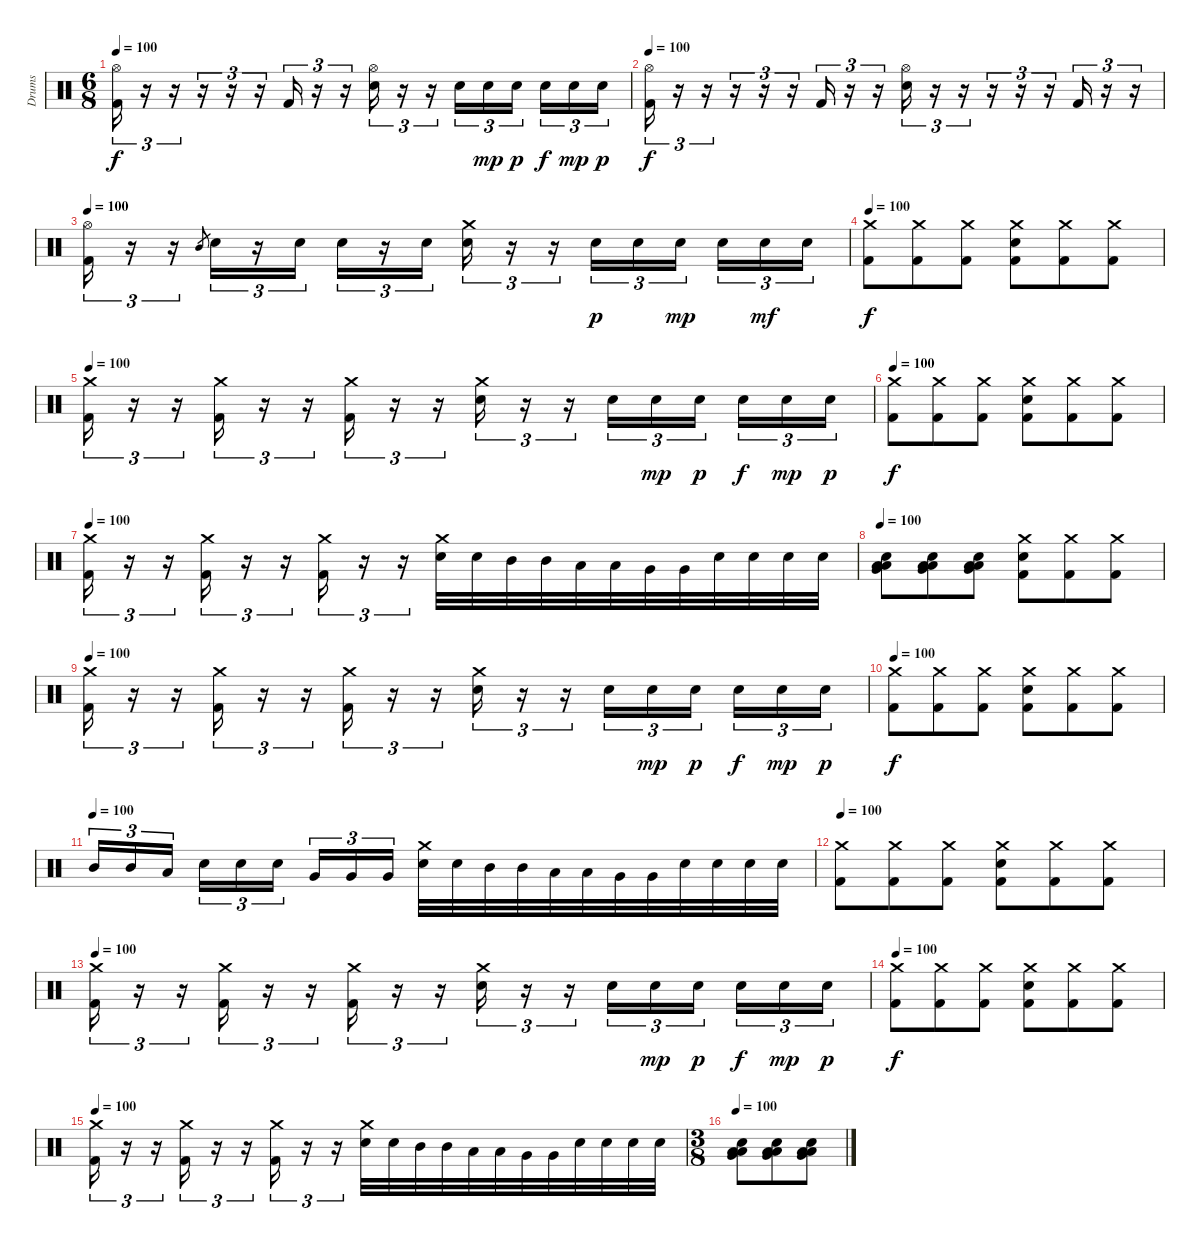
\track ("Drums" "Drums") {instrument percussion}
\staff {score}
\articulation defaults
\ts (6 8)
\tempo 100
\clef neutral
\ks c
("Hi-Hat (open)" "Kick (hit) 2").16{tu (3 2) dy f} r.16{tu (3 2)} r.16{tu (3 2)} r.16{tu (3 2)} r.16{tu (3 2)} r.16{tu (3 2)} "Kick (hit) 2".16{tu (3 2)} r.16{tu (3 2)} r.16{tu (3 2)} ("Hi-Hat (open)" "Electric Snare (hit)").16{tu (3 2)} r.16{tu (3 2)} r.16{tu (3 2)} "Electric Snare (hit)".16{tu (3 2)} "Electric Snare (hit)".16{tu (3 2) dy mp} "Electric Snare (hit)".16{tu (3 2) dy p} "Electric Snare (hit)".16{tu (3 2) dy f} "Electric Snare (hit)".16{tu (3 2) dy mp} "Electric Snare (hit)".16{tu (3 2) dy p} |
\tempo 100
("Hi-Hat (open)" "Kick (hit) 2").16{tu (3 2) dy f} r.16{tu (3 2)} r.16{tu (3 2)} r.16{tu (3 2)} r.16{tu (3 2)} r.16{tu (3 2)} "Kick (hit) 2".16{tu (3 2)} r.16{tu (3 2)} r.16{tu (3 2)} ("Hi-Hat (open)" "Electric Snare (hit)").16{tu (3 2)} r.16{tu (3 2)} r.16{tu (3 2)} r.16{tu (3 2)} r.16{tu (3 2)} r.16{tu (3 2)} "Kick (hit) 2".16{tu (3 2)} r.16{tu (3 2)} r.16{tu (3 2)} |
\tempo 100
("Hi-Hat (open)" "Kick (hit) 2").16{tu (3 2)} r.16{tu (3 2)} r.16{tu (3 2)} "Mid Tom (hit)".8{gr} "Electric Snare (hit)".16{tu (3 2)} r.16{tu (3 2)} "Electric Snare (hit)".16{tu (3 2)} "Electric Snare (hit)".16{tu (3 2)} r.16{tu (3 2)} "Electric Snare (hit)".16{tu (3 2)} ("Crash medium (hit)" "Electric Snare (hit)").16{tu (3 2)} r.16{tu (3 2)} r.16{tu (3 2)} "Electric Snare (hit)".16{tu (3 2) dy p} "Electric Snare (hit)".16{tu (3 2)} "Electric Snare (hit)".16{tu (3 2) dy mp} "Electric Snare (hit)".16{tu (3 2)} "Electric Snare (hit)".16{tu (3 2) dy mf} "Electric Snare (hit)".16{tu (3 2)} |
\tempo 100
("Crash medium (hit)" "Kick (hit) 2").8{dy f} ("Crash medium (hit)" "Kick (hit) 2").8 ("Crash medium (hit)" "Kick (hit) 2").8 ("Crash medium (hit)" "Electric Snare (hit)" "Kick (hit) 2").8 ("Crash medium (hit)" "Kick (hit) 2").8 ("Crash medium (hit)" "Kick (hit) 2").8 |
\tempo 100
("Crash medium (hit)" "Kick (hit) 2").16{tu (3 2)} r.16{tu (3 2)} r.16{tu (3 2)} ("Crash medium (hit)" "Kick (hit) 2").16{tu (3 2)} r.16{tu (3 2)} r.16{tu (3 2)} ("Crash medium (hit)" "Kick (hit) 2").16{tu (3 2)} r.16{tu (3 2)} r.16{tu (3 2)} ("Crash medium (hit)" "Electric Snare (hit)").16{tu (3 2)} r.16{tu (3 2)} r.16{tu (3 2)} "Electric Snare (hit)".16{tu (3 2)} "Electric Snare (hit)".16{tu (3 2) dy mp} "Electric Snare (hit)".16{tu (3 2) dy p} "Electric Snare (hit)".16{tu (3 2) dy f} "Electric Snare (hit)".16{tu (3 2) dy mp} "Electric Snare (hit)".16{tu (3 2) dy p} |
\tempo 100
("Crash medium (hit)" "Kick (hit) 2").8{dy f} ("Crash medium (hit)" "Kick (hit) 2").8 ("Crash medium (hit)" "Kick (hit) 2").8 ("Crash medium (hit)" "Electric Snare (hit)" "Kick (hit) 2").8 ("Crash medium (hit)" "Kick (hit) 2").8 ("Crash medium (hit)" "Kick (hit) 2").8 |
\tempo 100
("Crash medium (hit)" "Kick (hit) 2").16{tu (3 2)} r.16{tu (3 2)} r.16{tu (3 2)} ("Crash medium (hit)" "Kick (hit) 2").16{tu (3 2)} r.16{tu (3 2)} r.16{tu (3 2)} ("Crash medium (hit)" "Kick (hit) 2").16{tu (3 2)} r.16{tu (3 2)} r.16{tu (3 2)} ("Crash medium (hit)" "Electric Snare (hit)").32 "Electric Snare (hit)".32 "Mid Tom (hit)".32 "Mid Tom (hit)".32 "Low Tom (hit)".32 "Low Tom (hit)".32 "Very Low Tom (hit)".32 "Very Low Tom (hit)".32 "Electric Snare (hit)".32 "Electric Snare (hit)".32 "Electric Snare (hit)".32 "Electric Snare (hit)".32 |
\tempo 100
("Low Tom (hit)" "Very Low Tom (hit)" "Low Floor Tom (hit)" "Electric Snare (hit)").8 ("Low Tom (hit)" "Very Low Tom (hit)" "Low Floor Tom (hit)" "Electric Snare (hit)").8 ("Low Tom (hit)" "Very Low Tom (hit)" "Low Floor Tom (hit)" "Electric Snare (hit)").8 ("Crash medium (hit)" "Electric Snare (hit)" "Kick (hit) 2").8 ("Crash medium (hit)" "Kick (hit) 2").8 ("Crash medium (hit)" "Kick (hit) 2").8 |
\tempo 100
("Crash medium (hit)" "Kick (hit) 2").16{tu (3 2)} r.16{tu (3 2)} r.16{tu (3 2)} ("Crash medium (hit)" "Kick (hit) 2").16{tu (3 2)} r.16{tu (3 2)} r.16{tu (3 2)} ("Crash medium (hit)" "Kick (hit) 2").16{tu (3 2)} r.16{tu (3 2)} r.16{tu (3 2)} ("Crash medium (hit)" "Electric Snare (hit)").16{tu (3 2)} r.16{tu (3 2)} r.16{tu (3 2)} "Electric Snare (hit)".16{tu (3 2)} "Electric Snare (hit)".16{tu (3 2) dy mp} "Electric Snare (hit)".16{tu (3 2) dy p} "Electric Snare (hit)".16{tu (3 2) dy f} "Electric Snare (hit)".16{tu (3 2) dy mp} "Electric Snare (hit)".16{tu (3 2) dy p} |
\tempo 100
("Crash medium (hit)" "Kick (hit) 2").8{dy f} ("Crash medium (hit)" "Kick (hit) 2").8 ("Crash medium (hit)" "Kick (hit) 2").8 ("Crash medium (hit)" "Electric Snare (hit)" "Kick (hit) 2").8 ("Crash medium (hit)" "Kick (hit) 2").8 ("Crash medium (hit)" "Kick (hit) 2").8 |
\tempo (100)
"Mid Tom (hit)".16{tu (3 2)} "Mid Tom (hit)".16{tu (3 2)} "Low Tom (hit)".16{tu (3 2)} "Electric Snare (hit)".16{tu (3 2)} "Electric Snare (hit)".16{tu (3 2)} "Electric Snare (hit)".16{tu (3 2)} "Very Low Tom (hit)".16{tu (3 2)} "Very Low Tom (hit)".16{tu (3 2)} "Very Low Tom (hit)".16{tu (3 2)} ("Crash medium (hit)" "Electric Snare (hit)").32 "Electric Snare (hit)".32 "Mid Tom (hit)".32 "Mid Tom (hit)".32 "Low Tom (hit)".32 "Low Tom (hit)".32 "Very Low Tom (hit)".32 "Very Low Tom (hit)".32 "Electric Snare (hit)".32 "Electric Snare (hit)".32 "Electric Snare (hit)".32 "Electric Snare (hit)".32 |
\tempo 100
("Crash medium (hit)" "Kick (hit) 2").8 ("Crash medium (hit)" "Kick (hit) 2").8 ("Crash medium (hit)" "Kick (hit) 2").8 ("Crash medium (hit)" "Electric Snare (hit)" "Kick (hit) 2").8 ("Crash medium (hit)" "Kick (hit) 2").8 ("Crash medium (hit)" "Kick (hit) 2").8 |
\tempo 100
("Crash medium (hit)" "Kick (hit) 2").16{tu (3 2)} r.16{tu (3 2)} r.16{tu (3 2)} ("Crash medium (hit)" "Kick (hit) 2").16{tu (3 2)} r.16{tu (3 2)} r.16{tu (3 2)} ("Crash medium (hit)" "Kick (hit) 2").16{tu (3 2)} r.16{tu (3 2)} r.16{tu (3 2)} ("Crash medium (hit)" "Electric Snare (hit)").16{tu (3 2)} r.16{tu (3 2)} r.16{tu (3 2)} "Electric Snare (hit)".16{tu (3 2)} "Electric Snare (hit)".16{tu (3 2) dy mp} "Electric Snare (hit)".16{tu (3 2) dy p} "Electric Snare (hit)".16{tu (3 2) dy f} "Electric Snare (hit)".16{tu (3 2) dy mp} "Electric Snare (hit)".16{tu (3 2) dy p} |
\tempo 100
("Crash medium (hit)" "Kick (hit) 2").8{dy f} ("Crash medium (hit)" "Kick (hit) 2").8 ("Crash medium (hit)" "Kick (hit) 2").8 ("Crash medium (hit)" "Electric Snare (hit)" "Kick (hit) 2").8 ("Crash medium (hit)" "Kick (hit) 2").8 ("Crash medium (hit)" "Kick (hit) 2").8 |
\tempo 100
("Crash medium (hit)" "Kick (hit) 2").16{tu (3 2)} r.16{tu (3 2)} r.16{tu (3 2)} ("Crash medium (hit)" "Kick (hit) 2").16{tu (3 2)} r.16{tu (3 2)} r.16{tu (3 2)} ("Crash medium (hit)" "Kick (hit) 2").16{tu (3 2)} r.16{tu (3 2)} r.16{tu (3 2)} ("Crash medium (hit)" "Electric Snare (hit)").32 "Electric Snare (hit)".32 "Mid Tom (hit)".32 "Mid Tom (hit)".32 "Low Tom (hit)".32 "Low Tom (hit)".32 "Very Low Tom (hit)".32 "Very Low Tom (hit)".32 "Electric Snare (hit)".32 "Electric Snare (hit)".32 "Electric Snare (hit)".32 "Electric Snare (hit)".32 |
\ts (3 8)
\tempo 100
("Low Tom (hit)" "Very Low Tom (hit)" "Low Floor Tom (hit)" "Electric Snare (hit)").8 ("Low Tom (hit)" "Very Low Tom (hit)" "Low Floor Tom (hit)" "Electric Snare (hit)").8 ("Low Tom (hit)" "Very Low Tom (hit)" "Low Floor Tom (hit)" "Electric Snare (hit)").8
